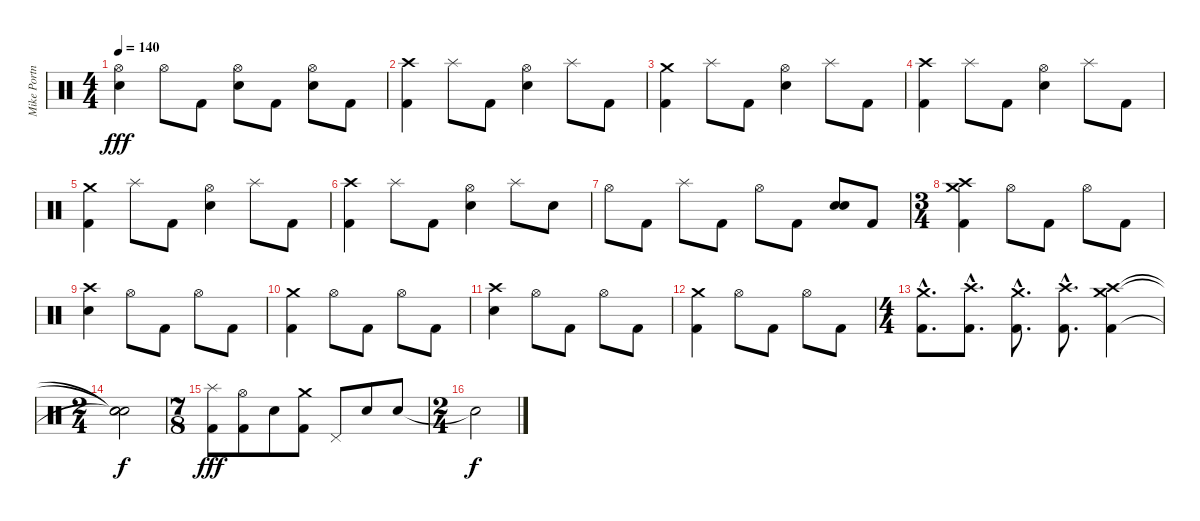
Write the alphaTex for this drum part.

\track ("Mike Portnoy - Drum" "Mike Portn") {instrument percussion}
\staff {score}
\articulation defaults
\ts (4 4)
\tempo 140
\clef neutral
\ks c
("Hi-Hat (open)" "Snare (hit) 2").4{dy fff} "Hi-Hat (open)".8 "Kick (hit) 2".8 ("Hi-Hat (open)" "Snare (hit) 2").8 "Kick (hit) 2".8 ("Hi-Hat (open)" "Snare (hit) 2").8 "Kick (hit) 2".8 |
("Crash high (hit)" "Kick (hit) 2").4 "Splash (hit)".8 "Kick (hit) 2".8 ("Hi-Hat (open)" "Snare (hit) 2").4 "Splash (hit)".8 "Kick (hit) 2".8 |
("Crash medium (hit)" "Kick (hit) 2").4 "Splash (hit)".8 "Kick (hit) 2".8 ("Hi-Hat (open)" "Snare (hit) 2").4 "Splash (hit)".8 "Kick (hit) 2".8 |
("Crash high (hit)" "Kick (hit) 2").4 "Splash (hit)".8 "Kick (hit) 2".8 ("Hi-Hat (open)" "Snare (hit) 2").4 "Splash (hit)".8 "Kick (hit) 2".8 |
("Crash medium (hit)" "Kick (hit) 2").4 "Splash (hit)".8 "Kick (hit) 2".8 ("Hi-Hat (open)" "Snare (hit) 2").4 "Splash (hit)".8 "Kick (hit) 2".8 |
("Crash high (hit)" "Kick (hit) 2").4 "Splash (hit)".8 "Kick (hit) 2".8 ("Hi-Hat (open)" "Snare (hit) 2").4 "Splash (hit)".8 "Snare (hit) 2".8 |
"Hi-Hat (open)".8 "Kick (hit) 2".8 "Splash (hit)".8 "Kick (hit) 2".8 "Hi-Hat (open)".8 "Kick (hit) 2".8 ("Snare (hit) 2" "Snare (hit) 2").8 "Kick (hit) 2".8 |
\ts (3 4)
("Crash medium (hit)" "Crash high (hit)" "Kick (hit) 2").4 "Hi-Hat (open)".8 "Kick (hit) 2".8 "Hi-Hat (open)".8 "Kick (hit) 2".8 |
("Crash high (hit)" "Snare (hit) 2").4 "Hi-Hat (open)".8 "Kick (hit) 2".8 "Hi-Hat (open)".8 "Kick (hit) 2".8 |
("Crash medium (hit)" "Kick (hit) 2").4 "Hi-Hat (open)".8 "Kick (hit) 2".8 "Hi-Hat (open)".8 "Kick (hit) 2".8 |
("Crash high (hit)" "Snare (hit) 2").4 "Hi-Hat (open)".8 "Kick (hit) 2".8 "Hi-Hat (open)".8 "Kick (hit) 2".8 |
("Crash medium (hit)" "Kick (hit) 2").4 "Hi-Hat (open)".8 "Kick (hit) 2".8 "Hi-Hat (open)".8 "Kick (hit) 2".8 |
\ts (4 4)
("Crash medium (hit)"{hac} "Kick (hit) 2"{hac}).8{d} ("Crash high (hit)"{hac} "Kick (hit) 2"{hac}).8{d} ("Crash medium (hit)"{hac} "Kick (hit) 2"{hac}).8{d} ("Crash high (hit)"{hac} "Kick (hit) 2"{hac}).8{d} ("Crash high (hit)" "Crash medium (hit)" "Kick (hit) 2").4 |
\ts (2 4)
("Snare (hit)"{t} "Snare (hit)"{t} "Snare (hit)"{t}).2{dy f} |
\ts (7 8)
("Splash (hit)" "Kick (hit) 2").8{dy fff} ("Hi-Hat (open)" "Kick (hit) 2").8 "Snare (hit) 2".8 ("Crash medium (hit)" "Kick (hit) 2").8 "Pedal Hi-Hat (hit)".8 "Snare (hit) 2".8 "Snare (hit) 2".8 |
\ts (2 4)
"Snare (hit)"{t}.2{dy f}
